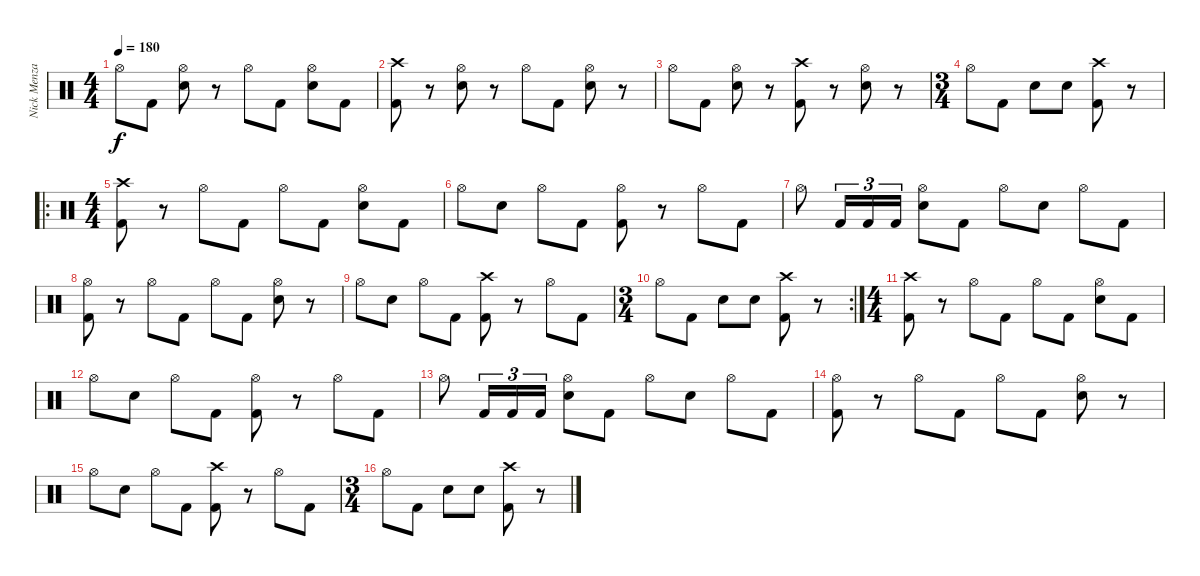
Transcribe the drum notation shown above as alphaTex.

\track ("Nick Menza" "Nick Menza") {instrument percussion}
\staff {score}
\articulation defaults
\ts (4 4)
\tempo 180
\clef neutral
\ks c "Hi-Hat (open)".8{dy f} "Kick (hit) 2".8
("Hi-Hat (open)" "Snare (hit) 2").8 r.8 "Hi-Hat (open)".8 "Kick (hit) 2".8 ("Hi-Hat (open)" "Snare (hit) 2").8 "Kick (hit) 2".8 |
("Crash high (hit)" "Kick (hit) 2").8 r.8 ("Hi-Hat (open)" "Snare (hit) 2").8 r.8 "Hi-Hat (open)".8 "Kick (hit) 2".8 ("Hi-Hat (open)" "Snare (hit) 2").8 r.8 |
"Hi-Hat (open)".8 "Kick (hit) 2".8 ("Hi-Hat (open)" "Snare (hit) 2").8 r.8 ("Crash high (hit)" "Kick (hit) 2").8 r.8 ("Hi-Hat (open)" "Snare (hit) 2").8 r.8 |
\ts (3 4)
"Hi-Hat (open)".8 "Kick (hit) 2".8 "Snare (hit) 2".8 "Snare (hit) 2".8 ("Crash high (hit)" "Kick (hit) 2").8 r.8 |
\ro
\ts (4 4)
("Crash high (hit)" "Kick (hit) 2").8 r.8 "Hi-Hat (open)".8 "Kick (hit) 2".8 "Hi-Hat (open)".8 "Kick (hit) 2".8 ("Hi-Hat (open)" "Snare (hit) 2").8 "Kick (hit) 2".8 |
"Hi-Hat (open)".8 "Snare (hit) 2".8 "Hi-Hat (open)".8 "Kick (hit) 2".8 ("Hi-Hat (open)" "Kick (hit) 2").8 r.8 "Hi-Hat (open)".8 "Kick (hit) 2".8 |
"Hi-Hat (open)".8 "Kick (hit) 2".16{tu (3 2)} "Kick (hit) 2".16{tu (3 2)} "Kick (hit) 2".16{tu (3 2)} ("Hi-Hat (open)" "Snare (hit) 2").8 "Kick (hit) 2".8 "Hi-Hat (open)".8 "Snare (hit) 2".8 "Hi-Hat (open)".8 "Kick (hit) 2".8 |
("Hi-Hat (open)" "Kick (hit) 2").8 r.8 "Hi-Hat (open)".8 "Kick (hit) 2".8 "Hi-Hat (open)".8 "Kick (hit) 2".8 ("Hi-Hat (open)" "Snare (hit) 2").8 r.8 |
"Hi-Hat (open)".8 "Snare (hit) 2".8 "Hi-Hat (open)".8 "Kick (hit) 2".8 ("Crash high (hit)" "Kick (hit) 2").8 r.8 "Hi-Hat (open)".8 "Kick (hit) 2".8 |
\rc 2
\ts (3 4)
"Hi-Hat (open)".8 "Kick (hit) 2".8 "Snare (hit) 2".8 "Snare (hit) 2".8 ("Crash high (hit)" "Kick (hit) 2").8 r.8 |
\ts (4 4)
("Crash high (hit)" "Kick (hit) 2").8 r.8 "Hi-Hat (open)".8 "Kick (hit) 2".8 "Hi-Hat (open)".8 "Kick (hit) 2".8 ("Hi-Hat (open)" "Snare (hit) 2").8 "Kick (hit) 2".8 |
"Hi-Hat (open)".8 "Snare (hit) 2".8 "Hi-Hat (open)".8 "Kick (hit) 2".8 ("Hi-Hat (open)" "Kick (hit) 2").8 r.8 "Hi-Hat (open)".8 "Kick (hit) 2".8 |
"Hi-Hat (open)".8 "Kick (hit) 2".16{tu (3 2)} "Kick (hit) 2".16{tu (3 2)} "Kick (hit) 2".16{tu (3 2)} ("Hi-Hat (open)" "Snare (hit) 2").8 "Kick (hit) 2".8 "Hi-Hat (open)".8 "Snare (hit) 2".8 "Hi-Hat (open)".8 "Kick (hit) 2".8 |
("Hi-Hat (open)" "Kick (hit) 2").8 r.8 "Hi-Hat (open)".8 "Kick (hit) 2".8 "Hi-Hat (open)".8 "Kick (hit) 2".8 ("Hi-Hat (open)" "Snare (hit) 2").8 r.8 |
"Hi-Hat (open)".8 "Snare (hit) 2".8 "Hi-Hat (open)".8 "Kick (hit) 2".8 ("Crash high (hit)" "Kick (hit) 2").8 r.8 "Hi-Hat (open)".8 "Kick (hit) 2".8 |
\ts (3 4)
"Hi-Hat (open)".8 "Kick (hit) 2".8 "Snare (hit) 2".8 "Snare (hit) 2".8 ("Crash high (hit)" "Kick (hit) 2").8 r.8
